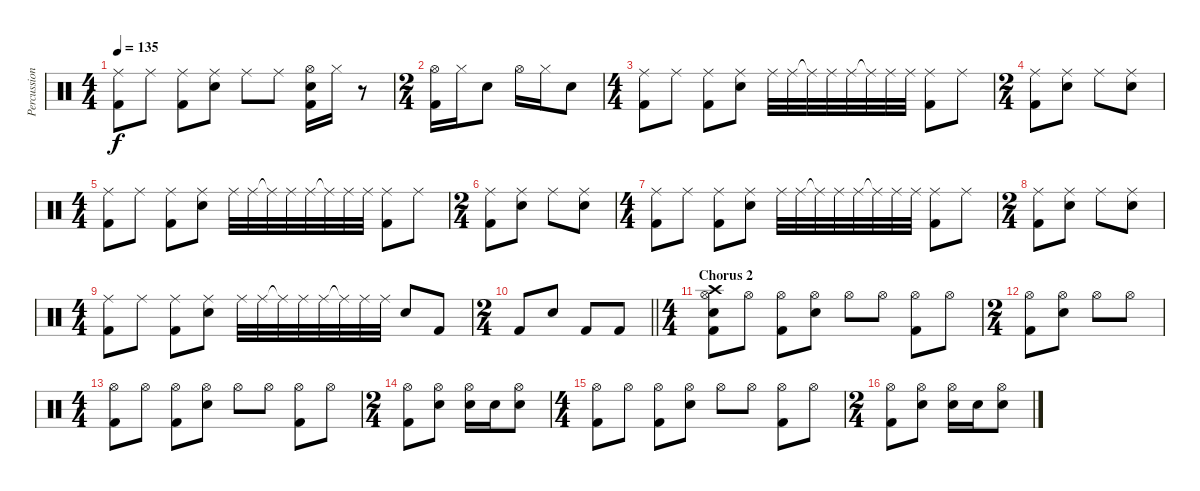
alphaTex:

\track ("Percussion" "Percussion") {instrument percussion}
\staff {score}
\articulation defaults
\ts (4 4)
\tempo 135
\clef neutral
\ks c
("Ride (middle)" "Kick (hit) 2").8{dy f} "Ride (middle)".8 ("Ride (middle)" "Kick (hit) 2").8 ("Ride (middle)" "Electric Snare (hit)").8 "Ride (middle)".8 "Ride (middle)".8 ("Hi-Hat (open)" "Electric Snare (hit)" "Kick (hit) 2").16 "Hi-Hat (closed)".16 r.8 |
\ts (2 4)
("Hi-Hat (open)" "Kick (hit) 2").16 "Hi-Hat (closed)".16 "Electric Snare (hit)".8 "Hi-Hat (open)".16 "Hi-Hat (closed)".16 "Electric Snare (hit)".8 |
\ts (4 4)
("Ride (middle)" "Kick (hit) 2").8 "Ride (middle)".8 ("Ride (middle)" "Kick (hit) 2").8 ("Ride (middle)" "Electric Snare (hit)").8 "Ride (middle)".32 "Ride (middle)".32 "Ride (middle)"{t}.32 "Ride (middle)".32 "Ride (middle)".32 "Ride (middle)"{t}.32 "Ride (middle)".32 "Ride (middle)".32 ("Ride (middle)" "Kick (hit) 2").8 "Ride (middle)".8 |
\ts (2 4)
("Ride (middle)" "Kick (hit) 2").8 ("Ride (middle)" "Electric Snare (hit)").8 "Ride (middle)".8 ("Ride (middle)" "Electric Snare (hit)").8 |
\ts (4 4)
("Ride (middle)" "Kick (hit) 2").8 "Ride (middle)".8 ("Ride (middle)" "Kick (hit) 2").8 ("Ride (middle)" "Electric Snare (hit)").8 "Ride (middle)".32 "Ride (middle)".32 "Ride (middle)"{t}.32 "Ride (middle)".32 "Ride (middle)".32 "Ride (middle)"{t}.32 "Ride (middle)".32 "Ride (middle)".32 ("Ride (middle)" "Kick (hit) 2").8 "Ride (middle)".8 |
\ts (2 4)
("Ride (middle)" "Kick (hit) 2").8 ("Ride (middle)" "Electric Snare (hit)").8 "Ride (middle)".8 ("Ride (middle)" "Electric Snare (hit)").8 |
\ts (4 4)
("Ride (middle)" "Kick (hit) 2").8 "Ride (middle)".8 ("Ride (middle)" "Kick (hit) 2").8 ("Ride (middle)" "Electric Snare (hit)").8 "Ride (middle)".32 "Ride (middle)".32 "Ride (middle)"{t}.32 "Ride (middle)".32 "Ride (middle)".32 "Ride (middle)"{t}.32 "Ride (middle)".32 "Ride (middle)".32 ("Ride (middle)" "Kick (hit) 2").8 "Ride (middle)".8 |
\ts (2 4)
("Ride (middle)" "Kick (hit) 2").8 ("Ride (middle)" "Electric Snare (hit)").8 "Ride (middle)".8 ("Ride (middle)" "Electric Snare (hit)").8 |
\ts (4 4)
("Ride (middle)" "Kick (hit) 2").8 "Ride (middle)".8 ("Ride (middle)" "Kick (hit) 2").8 ("Ride (middle)" "Electric Snare (hit)").8 "Ride (middle)".32 "Ride (middle)".32 "Ride (middle)"{t}.32 "Ride (middle)".32 "Ride (middle)".32 "Ride (middle)"{t}.32 "Ride (middle)".32 "Ride (middle)".32 "Electric Snare (hit)".8 "Kick (hit) 2".8 |
\ts (2 4)
\barLineRight lightlight "Kick (hit) 2".8 "Electric Snare (hit)".8 "Kick (hit) 2".8 "Kick (hit) 2".8
|
\ts (4 4)
\section ("" "Chorus 2")
("Crash high (hit)" "Hi-Hat (open)" "Electric Snare (hit)" "Kick (hit) 2").8 "Hi-Hat (open)".8 ("Hi-Hat (open)" "Kick (hit) 2").8 ("Hi-Hat (open)" "Electric Snare (hit)").8 "Hi-Hat (open)".8 "Hi-Hat (open)".8 ("Hi-Hat (open)" "Kick (hit) 2").8 "Hi-Hat (open)".8 |
\ts (2 4)
("Hi-Hat (open)" "Kick (hit) 2").8 ("Hi-Hat (open)" "Electric Snare (hit)").8 "Hi-Hat (open)".8 "Hi-Hat (open)".8 |
\ts (4 4)
("Hi-Hat (open)" "Kick (hit) 2").8 "Hi-Hat (open)".8 ("Hi-Hat (open)" "Kick (hit) 2").8 ("Hi-Hat (open)" "Electric Snare (hit)").8 "Hi-Hat (open)".8 "Hi-Hat (open)".8 ("Hi-Hat (open)" "Kick (hit) 2").8 "Hi-Hat (open)".8 |
\ts (2 4)
("Hi-Hat (open)" "Kick (hit) 2").8 ("Hi-Hat (open)" "Electric Snare (hit)").8 ("Hi-Hat (open)" "Electric Snare (hit)").16 "Electric Snare (hit)".16 ("Hi-Hat (open)" "Electric Snare (hit)").8 |
\ts (4 4)
("Hi-Hat (open)" "Kick (hit) 2").8 "Hi-Hat (open)".8 ("Hi-Hat (open)" "Kick (hit) 2").8 ("Hi-Hat (open)" "Electric Snare (hit)").8 "Hi-Hat (open)".8 "Hi-Hat (open)".8 ("Hi-Hat (open)" "Kick (hit) 2").8 "Hi-Hat (open)".8 |
\ts (2 4)
("Hi-Hat (open)" "Kick (hit) 2").8 ("Hi-Hat (open)" "Electric Snare (hit)").8 ("Hi-Hat (open)" "Electric Snare (hit)").16 "Electric Snare (hit)".16 ("Hi-Hat (open)" "Electric Snare (hit)").8
